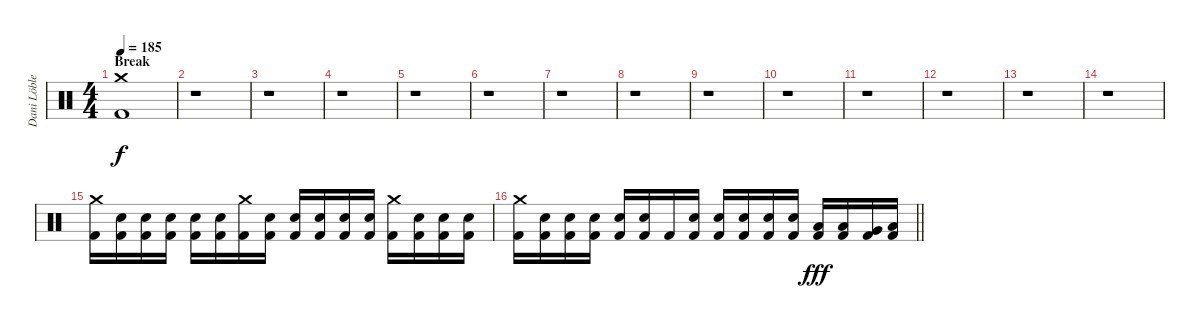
\track ("Dani Löble" "Dani Löble") {instrument percussion}
\staff {score}
\articulation defaults
\ts (4 4)
\section ("" "Break")
\tempo 185
\clef neutral
\ks c
("Crash medium (hit)" "Kick (hit) 2").1{dy f} |
r.1 |
r.1 |
r.1 |
r.1 |
r.1 |
r.1 |
r.1 |
r.1 |
r.1 |
r.1 |
r.1 |
r.1 |
r.1 |
("Crash medium (hit)" "Kick (hit) 2").16 ("Electric Snare (hit)" "Kick (hit) 2").16 ("Electric Snare (hit)" "Kick (hit) 2").16 ("Electric Snare (hit)" "Kick (hit) 2").16 ("Electric Snare (hit)" "Kick (hit) 2").16 ("Electric Snare (hit)" "Kick (hit) 2").16 ("Crash medium (hit)" "Kick (hit) 2").16 ("Electric Snare (hit)" "Kick (hit) 2").16 ("Electric Snare (hit)" "Kick (hit) 2").16 ("Electric Snare (hit)" "Kick (hit) 2").16 ("Electric Snare (hit)" "Kick (hit) 2").16 ("Electric Snare (hit)" "Kick (hit) 2").16 ("Crash medium (hit)" "Kick (hit) 2").16 ("Electric Snare (hit)" "Kick (hit) 2").16 ("Electric Snare (hit)" "Kick (hit) 2").16 ("Electric Snare (hit)" "Kick (hit) 2").16 |
\barLineRight lightlight
("Crash medium (hit)" "Kick (hit) 2").16 ("Electric Snare (hit)" "Kick (hit) 2").16 ("Electric Snare (hit)" "Kick (hit) 2").16 ("Electric Snare (hit)" "Kick (hit) 2").16 ("Electric Snare (hit)" "Kick (hit) 2").16 ("Electric Snare (hit)" "Kick (hit) 2").16 "Kick (hit) 2".16 ("Electric Snare (hit)" "Kick (hit) 2").16 ("Electric Snare (hit)" "Kick (hit) 2").16 ("Electric Snare (hit)" "Kick (hit) 2").16 ("Electric Snare (hit)" "Kick (hit) 2").16 ("Electric Snare (hit)" "Kick (hit) 2").16 ("Low Tom (hit)" "Kick (hit) 2").16{dy fff} ("Low Tom (hit)" "Kick (hit) 2").16 ("Very Low Tom (hit)" "Kick (hit) 2").16 ("Low Floor Tom (hit)" "Kick (hit) 2").16
